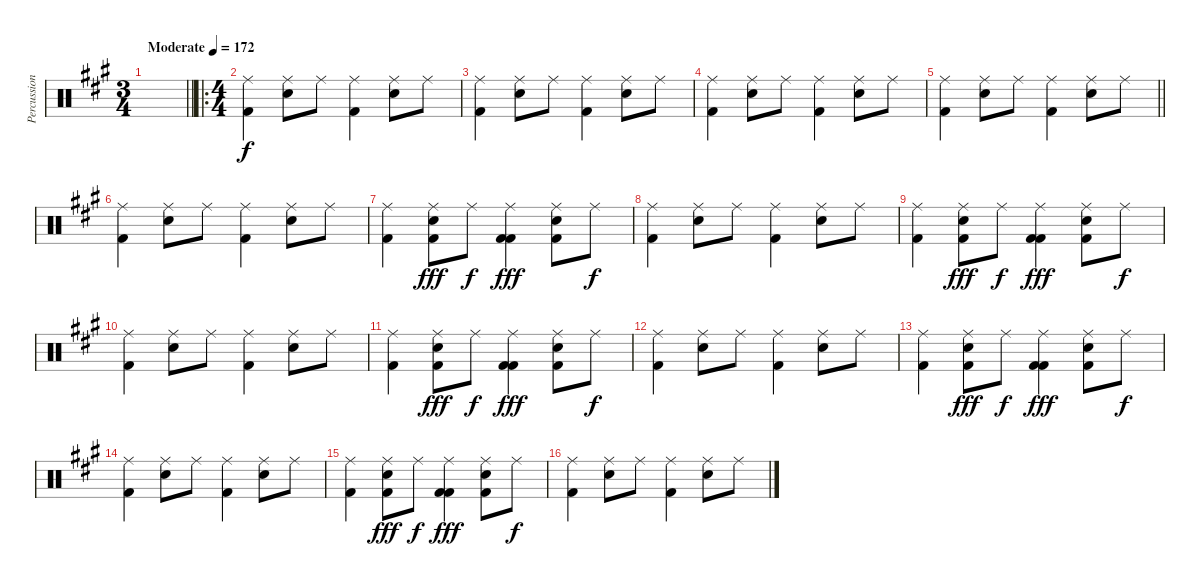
\track ("Percussion" "Percussion") {instrument percussion}
\staff {score}
\articulation defaults
\ts (3 4)
\tempo (172 "Moderate")
\clef neutral
\barLineRight lightlight
\ks a
|
\ro
\ts (4 4)
("Ride (middle)" "Kick (hit) 2").4 ("Ride (middle)" "Snare (hit) 2").8 "Ride (middle)".8 ("Ride (middle)" "Kick (hit) 2").4 ("Ride (middle)" "Snare (hit) 2").8 "Ride (middle)".8 |
("Ride (middle)" "Kick (hit) 2").4 ("Ride (middle)" "Snare (hit) 2").8 "Ride (middle)".8 ("Ride (middle)" "Kick (hit) 2").4 ("Ride (middle)" "Snare (hit) 2").8 "Ride (middle)".8 |
("Ride (middle)" "Kick (hit) 2").4 ("Ride (middle)" "Snare (hit) 2").8 "Ride (middle)".8 ("Ride (middle)" "Kick (hit) 2").4 ("Ride (middle)" "Snare (hit) 2").8 "Ride (middle)".8 |
\barLineRight lightlight
("Ride (middle)" "Kick (hit) 2").4 ("Ride (middle)" "Snare (hit) 2").8 "Ride (middle)".8 ("Ride (middle)" "Kick (hit) 2").4 ("Ride (middle)" "Snare (hit) 2").8 "Ride (middle)".8 |
("Ride (middle)" "Kick (hit) 2").4 ("Ride (middle)" "Snare (hit) 2").8 "Ride (middle)".8 ("Ride (middle)" "Kick (hit) 2").4 ("Ride (middle)" "Snare (hit) 2").8 "Ride (middle)".8 |
("Ride (middle)" "Kick (hit) 2").4 ("Ride (middle)" "Snare (hit) 2" "Kick (hit) 2").8{dy fff} "Ride (middle)".8{dy f} ("Ride (middle)" "Kick (hit) 2" "Kick (hit) 2").4{dy fff} ("Ride (middle)" "Snare (hit) 2" "Kick (hit) 2").8 "Ride (middle)".8{dy f} |
("Ride (middle)" "Kick (hit) 2").4 ("Ride (middle)" "Snare (hit) 2").8 "Ride (middle)".8 ("Ride (middle)" "Kick (hit) 2").4 ("Ride (middle)" "Snare (hit) 2").8 "Ride (middle)".8 |
("Ride (middle)" "Kick (hit) 2").4 ("Ride (middle)" "Snare (hit) 2" "Kick (hit) 2").8{dy fff} "Ride (middle)".8{dy f} ("Ride (middle)" "Kick (hit) 2" "Kick (hit) 2").4{dy fff} ("Ride (middle)" "Snare (hit) 2" "Kick (hit) 2").8 "Ride (middle)".8{dy f} |
("Ride (middle)" "Kick (hit) 2").4 ("Ride (middle)" "Snare (hit) 2").8 "Ride (middle)".8 ("Ride (middle)" "Kick (hit) 2").4 ("Ride (middle)" "Snare (hit) 2").8 "Ride (middle)".8 |
("Ride (middle)" "Kick (hit) 2").4 ("Ride (middle)" "Snare (hit) 2" "Kick (hit) 2").8{dy fff} "Ride (middle)".8{dy f} ("Ride (middle)" "Kick (hit) 2" "Kick (hit) 2").4{dy fff} ("Ride (middle)" "Snare (hit) 2" "Kick (hit) 2").8 "Ride (middle)".8{dy f} |
("Ride (middle)" "Kick (hit) 2").4 ("Ride (middle)" "Snare (hit) 2").8 "Ride (middle)".8 ("Ride (middle)" "Kick (hit) 2").4 ("Ride (middle)" "Snare (hit) 2").8 "Ride (middle)".8 |
("Ride (middle)" "Kick (hit) 2").4 ("Ride (middle)" "Snare (hit) 2" "Kick (hit) 2").8{dy fff} "Ride (middle)".8{dy f} ("Ride (middle)" "Kick (hit) 2" "Kick (hit) 2").4{dy fff} ("Ride (middle)" "Snare (hit) 2" "Kick (hit) 2").8 "Ride (middle)".8{dy f} |
("Ride (middle)" "Kick (hit) 2").4 ("Ride (middle)" "Snare (hit) 2").8 "Ride (middle)".8 ("Ride (middle)" "Kick (hit) 2").4 ("Ride (middle)" "Snare (hit) 2").8 "Ride (middle)".8 |
("Ride (middle)" "Kick (hit) 2").4 ("Ride (middle)" "Snare (hit) 2" "Kick (hit) 2").8{dy fff} "Ride (middle)".8{dy f} ("Ride (middle)" "Kick (hit) 2" "Kick (hit) 2").4{dy fff} ("Ride (middle)" "Snare (hit) 2" "Kick (hit) 2").8 "Ride (middle)".8{dy f} |
("Ride (middle)" "Kick (hit) 2").4 ("Ride (middle)" "Snare (hit) 2").8 "Ride (middle)".8 ("Ride (middle)" "Kick (hit) 2").4 ("Ride (middle)" "Snare (hit) 2").8 "Ride (middle)".8
